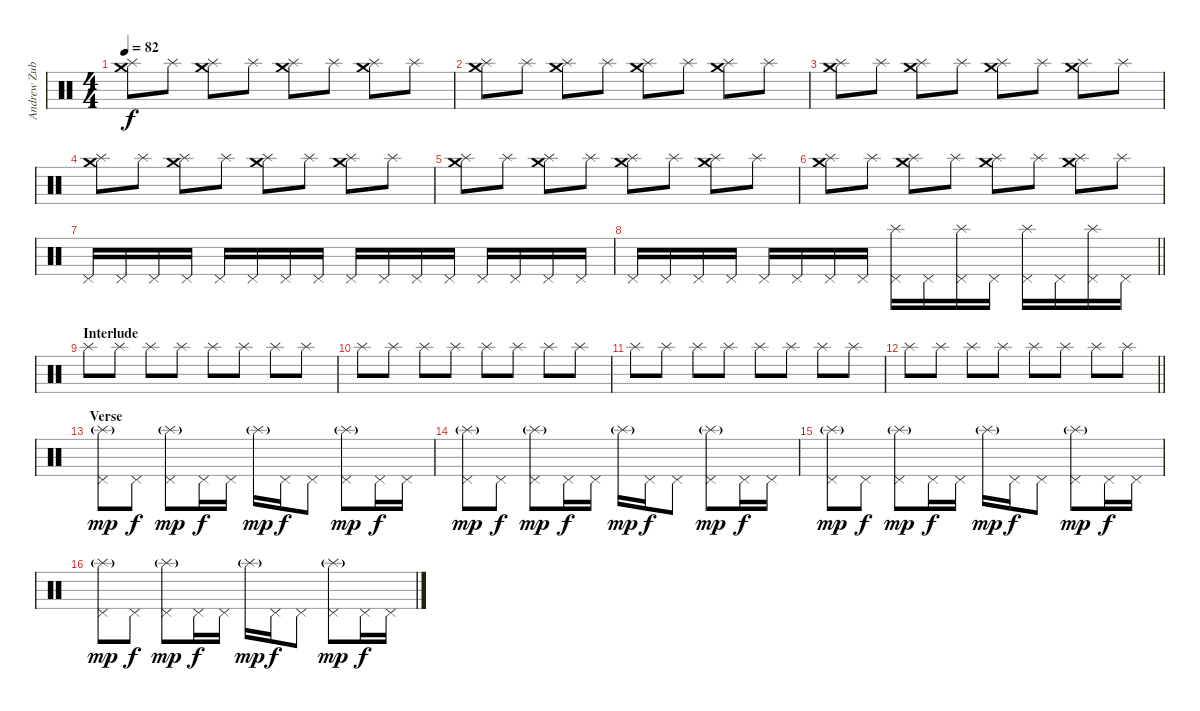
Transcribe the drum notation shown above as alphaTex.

\track ("Andrew Zubiszewski (Drums)" "Andrew Zub") {instrument percussion}
\staff {score}
\articulation defaults
\ts (4 4)
\tempo 82
\clef neutral
\ks c
("Crash medium (hit)" "Splash (hit)").8{dy f} "Splash (hit)".8 ("Crash medium (hit)" "Splash (hit)").8 "Splash (hit)".8 ("Crash medium (hit)" "Splash (hit)").8 "Splash (hit)".8 ("Crash medium (hit)" "Splash (hit)").8 "Splash (hit)".8 |
("Crash medium (hit)" "Splash (hit)").8 "Splash (hit)".8 ("Crash medium (hit)" "Splash (hit)").8 "Splash (hit)".8 ("Crash medium (hit)" "Splash (hit)").8 "Splash (hit)".8 ("Crash medium (hit)" "Splash (hit)").8 "Splash (hit)".8 |
("Crash medium (hit)" "Splash (hit)").8 "Splash (hit)".8 ("Crash medium (hit)" "Splash (hit)").8 "Splash (hit)".8 ("Crash medium (hit)" "Splash (hit)").8 "Splash (hit)".8 ("Crash medium (hit)" "Splash (hit)").8 "Splash (hit)".8 |
("Crash medium (hit)" "Splash (hit)").8 "Splash (hit)".8 ("Crash medium (hit)" "Splash (hit)").8 "Splash (hit)".8 ("Crash medium (hit)" "Splash (hit)").8 "Splash (hit)".8 ("Crash medium (hit)" "Splash (hit)").8 "Splash (hit)".8 |
("Crash medium (hit)" "Splash (hit)").8 "Splash (hit)".8 ("Crash medium (hit)" "Splash (hit)").8 "Splash (hit)".8 ("Crash medium (hit)" "Splash (hit)").8 "Splash (hit)".8 ("Crash medium (hit)" "Splash (hit)").8 "Splash (hit)".8 |
("Crash medium (hit)" "Splash (hit)").8 "Splash (hit)".8 ("Crash medium (hit)" "Splash (hit)").8 "Splash (hit)".8 ("Crash medium (hit)" "Splash (hit)").8 "Splash (hit)".8 ("Crash medium (hit)" "Splash (hit)").8 "Splash (hit)".8 |
"Pedal Hi-Hat (hit)".16 "Pedal Hi-Hat (hit)".16 "Pedal Hi-Hat (hit)".16 "Pedal Hi-Hat (hit)".16 "Pedal Hi-Hat (hit)".16 "Pedal Hi-Hat (hit)".16 "Pedal Hi-Hat (hit)".16 "Pedal Hi-Hat (hit)".16 "Pedal Hi-Hat (hit)".16 "Pedal Hi-Hat (hit)".16 "Pedal Hi-Hat (hit)".16 "Pedal Hi-Hat (hit)".16 "Pedal Hi-Hat (hit)".16 "Pedal Hi-Hat (hit)".16 "Pedal Hi-Hat (hit)".16 "Pedal Hi-Hat (hit)".16 |
\barLineRight lightlight "Pedal Hi-Hat (hit)".16 "Pedal Hi-Hat (hit)".16 "Pedal Hi-Hat (hit)".16 "Pedal Hi-Hat (hit)".16 "Pedal Hi-Hat (hit)".16 "Pedal Hi-Hat (hit)".16 "Pedal Hi-Hat (hit)".16 "Pedal Hi-Hat (hit)".16
("Splash (hit)" "Pedal Hi-Hat (hit)").16 "Pedal Hi-Hat (hit)".16 ("Splash (hit)" "Pedal Hi-Hat (hit)").16 "Pedal Hi-Hat (hit)".16 ("Splash (hit)" "Pedal Hi-Hat (hit)").16 "Pedal Hi-Hat (hit)".16 ("Splash (hit)" "Pedal Hi-Hat (hit)").16 "Pedal Hi-Hat (hit)".16 |
\section ("" "Interlude")
"Splash (hit)".8 "Splash (hit)".8 "Splash (hit)".8 "Splash (hit)".8 "Splash (hit)".8 "Splash (hit)".8 "Splash (hit)".8 "Splash (hit)".8 |
"Splash (hit)".8 "Splash (hit)".8 "Splash (hit)".8 "Splash (hit)".8 "Splash (hit)".8 "Splash (hit)".8 "Splash (hit)".8 "Splash (hit)".8 |
"Splash (hit)".8 "Splash (hit)".8 "Splash (hit)".8 "Splash (hit)".8 "Splash (hit)".8 "Splash (hit)".8 "Splash (hit)".8 "Splash (hit)".8 |
\barLineRight lightlight "Splash (hit)".8 "Splash (hit)".8 "Splash (hit)".8 "Splash (hit)".8 "Splash (hit)".8 "Splash (hit)".8 "Splash (hit)".8 "Splash (hit)".8
|
\section ("" "Verse")
("Splash (hit)"{g} "Pedal Hi-Hat (hit)").8{dy mp} "Pedal Hi-Hat (hit)".8{dy f} ("Splash (hit)"{g} "Pedal Hi-Hat (hit)").8{dy mp} "Pedal Hi-Hat (hit)".16{dy f} "Pedal Hi-Hat (hit)".16 "Splash (hit)"{g}.16{dy mp} "Pedal Hi-Hat (hit)".16{dy f} "Pedal Hi-Hat (hit)".8 ("Splash (hit)"{g} "Pedal Hi-Hat (hit)").8{dy mp} "Pedal Hi-Hat (hit)".16{dy f} "Pedal Hi-Hat (hit)".16 |
("Splash (hit)"{g} "Pedal Hi-Hat (hit)").8{dy mp} "Pedal Hi-Hat (hit)".8{dy f} ("Splash (hit)"{g} "Pedal Hi-Hat (hit)").8{dy mp} "Pedal Hi-Hat (hit)".16{dy f} "Pedal Hi-Hat (hit)".16 "Splash (hit)"{g}.16{dy mp} "Pedal Hi-Hat (hit)".16{dy f} "Pedal Hi-Hat (hit)".8 ("Splash (hit)"{g} "Pedal Hi-Hat (hit)").8{dy mp} "Pedal Hi-Hat (hit)".16{dy f} "Pedal Hi-Hat (hit)".16 |
("Splash (hit)"{g} "Pedal Hi-Hat (hit)").8{dy mp} "Pedal Hi-Hat (hit)".8{dy f} ("Splash (hit)"{g} "Pedal Hi-Hat (hit)").8{dy mp} "Pedal Hi-Hat (hit)".16{dy f} "Pedal Hi-Hat (hit)".16 "Splash (hit)"{g}.16{dy mp} "Pedal Hi-Hat (hit)".16{dy f} "Pedal Hi-Hat (hit)".8 ("Splash (hit)"{g} "Pedal Hi-Hat (hit)").8{dy mp} "Pedal Hi-Hat (hit)".16{dy f} "Pedal Hi-Hat (hit)".16 |
("Splash (hit)"{g} "Pedal Hi-Hat (hit)").8{dy mp} "Pedal Hi-Hat (hit)".8{dy f} ("Splash (hit)"{g} "Pedal Hi-Hat (hit)").8{dy mp} "Pedal Hi-Hat (hit)".16{dy f} "Pedal Hi-Hat (hit)".16 "Splash (hit)"{g}.16{dy mp} "Pedal Hi-Hat (hit)".16{dy f} "Pedal Hi-Hat (hit)".8 ("Splash (hit)"{g} "Pedal Hi-Hat (hit)").8{dy mp} "Pedal Hi-Hat (hit)".16{dy f} "Pedal Hi-Hat (hit)".16
